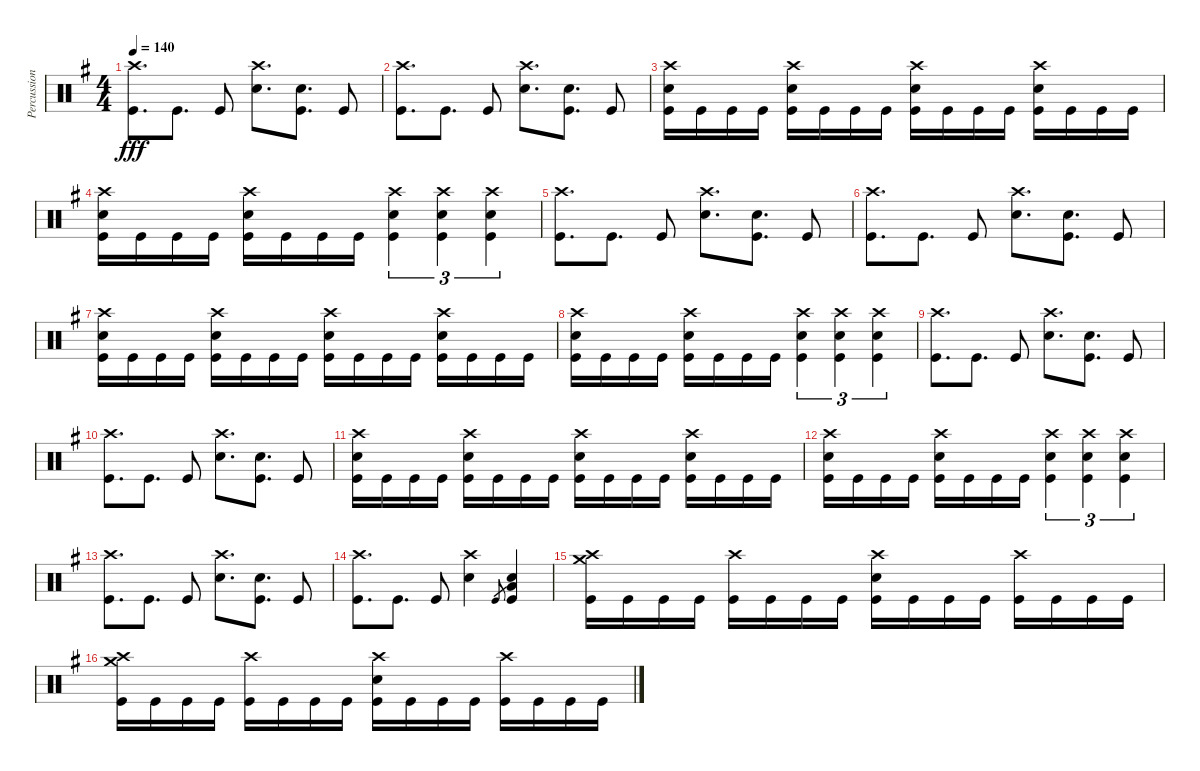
\track ("Percussion" "Percussion") {instrument percussion}
\staff {score}
\articulation defaults
\ts (4 4)
\tempo 140
\clef neutral
\ks eminor
("Crash high (hit)" "Kick (hit)").8{d dy fff} "Kick (hit)".8{d} "Kick (hit)".8 ("Crash high (hit)" "Snare (hit) 2").8{d} ("Snare (hit) 2" "Kick (hit)").8{d} "Kick (hit)".8 |
("Crash high (hit)" "Kick (hit)").8{d} "Kick (hit)".8{d} "Kick (hit)".8 ("Crash high (hit)" "Snare (hit) 2").8{d} ("Snare (hit) 2" "Kick (hit)").8{d} "Kick (hit)".8 |
("Crash high (hit)" "Snare (hit) 2" "Kick (hit)").16 "Kick (hit)".16 "Kick (hit)".16 "Kick (hit)".16 ("Crash high (hit)" "Snare (hit) 2" "Kick (hit)").16 "Kick (hit)".16 "Kick (hit)".16 "Kick (hit)".16 ("Crash high (hit)" "Snare (hit) 2" "Kick (hit)").16 "Kick (hit)".16 "Kick (hit)".16 "Kick (hit)".16 ("Crash high (hit)" "Snare (hit) 2" "Kick (hit)").16 "Kick (hit)".16 "Kick (hit)".16 "Kick (hit)".16 |
("Crash high (hit)" "Snare (hit) 2" "Kick (hit)").16 "Kick (hit)".16 "Kick (hit)".16 "Kick (hit)".16 ("Crash high (hit)" "Snare (hit) 2" "Kick (hit)").16 "Kick (hit)".16 "Kick (hit)".16 "Kick (hit)".16 ("Crash high (hit)" "Snare (hit) 2" "Kick (hit)").4{tu (3 2)} ("Crash high (hit)" "Snare (hit) 2" "Kick (hit)").4{tu (3 2)} ("Crash high (hit)" "Snare (hit) 2" "Kick (hit)").4{tu (3 2)} |
("Crash high (hit)" "Kick (hit)").8{d} "Kick (hit)".8{d} "Kick (hit)".8 ("Crash high (hit)" "Snare (hit) 2").8{d} ("Snare (hit) 2" "Kick (hit)").8{d} "Kick (hit)".8 |
("Crash high (hit)" "Kick (hit)").8{d} "Kick (hit)".8{d} "Kick (hit)".8 ("Crash high (hit)" "Snare (hit) 2").8{d} ("Snare (hit) 2" "Kick (hit)").8{d} "Kick (hit)".8 |
("Crash high (hit)" "Snare (hit) 2" "Kick (hit)").16 "Kick (hit)".16 "Kick (hit)".16 "Kick (hit)".16 ("Crash high (hit)" "Snare (hit) 2" "Kick (hit)").16 "Kick (hit)".16 "Kick (hit)".16 "Kick (hit)".16 ("Crash high (hit)" "Snare (hit) 2" "Kick (hit)").16 "Kick (hit)".16 "Kick (hit)".16 "Kick (hit)".16 ("Crash high (hit)" "Snare (hit) 2" "Kick (hit)").16 "Kick (hit)".16 "Kick (hit)".16 "Kick (hit)".16 |
("Crash high (hit)" "Snare (hit) 2" "Kick (hit)").16 "Kick (hit)".16 "Kick (hit)".16 "Kick (hit)".16 ("Crash high (hit)" "Snare (hit) 2" "Kick (hit)").16 "Kick (hit)".16 "Kick (hit)".16 "Kick (hit)".16 ("Crash high (hit)" "Snare (hit) 2" "Kick (hit)").4{tu (3 2)} ("Crash high (hit)" "Snare (hit) 2" "Kick (hit)").4{tu (3 2)} ("Crash high (hit)" "Snare (hit) 2" "Kick (hit)").4{tu (3 2)} |
("Crash high (hit)" "Kick (hit)").8{d} "Kick (hit)".8{d} "Kick (hit)".8 ("Crash high (hit)" "Snare (hit) 2").8{d} ("Snare (hit) 2" "Kick (hit)").8{d} "Kick (hit)".8 |
("Crash high (hit)" "Kick (hit)").8{d} "Kick (hit)".8{d} "Kick (hit)".8 ("Crash high (hit)" "Snare (hit) 2").8{d} ("Snare (hit) 2" "Kick (hit)").8{d} "Kick (hit)".8 |
("Crash high (hit)" "Snare (hit) 2" "Kick (hit)").16 "Kick (hit)".16 "Kick (hit)".16 "Kick (hit)".16 ("Crash high (hit)" "Snare (hit) 2" "Kick (hit)").16 "Kick (hit)".16 "Kick (hit)".16 "Kick (hit)".16 ("Crash high (hit)" "Snare (hit) 2" "Kick (hit)").16 "Kick (hit)".16 "Kick (hit)".16 "Kick (hit)".16 ("Crash high (hit)" "Snare (hit) 2" "Kick (hit)").16 "Kick (hit)".16 "Kick (hit)".16 "Kick (hit)".16 |
("Crash high (hit)" "Snare (hit) 2" "Kick (hit)").16 "Kick (hit)".16 "Kick (hit)".16 "Kick (hit)".16 ("Crash high (hit)" "Snare (hit) 2" "Kick (hit)").16 "Kick (hit)".16 "Kick (hit)".16 "Kick (hit)".16 ("Crash high (hit)" "Snare (hit) 2" "Kick (hit)").4{tu (3 2)} ("Crash high (hit)" "Snare (hit) 2" "Kick (hit)").4{tu (3 2)} ("Crash high (hit)" "Snare (hit) 2" "Kick (hit)").4{tu (3 2)} |
("Crash high (hit)" "Kick (hit)").8{d} "Kick (hit)".8{d} "Kick (hit)".8 ("Crash high (hit)" "Snare (hit) 2").8{d} ("Snare (hit) 2" "Kick (hit)").8{d} "Kick (hit)".8 |
("Crash high (hit)" "Kick (hit)").8{d} "Kick (hit)".8{d} "Kick (hit)".8 ("Crash high (hit)" "Snare (hit) 2").4 "Kick (hit)".8{gr} ("Snare (hit) 2" "Low Tom (hit)" "Kick (hit)").4 |
("Crash medium (hit)" "Crash high (hit)" "Kick (hit)").16 "Kick (hit)".16 "Kick (hit)".16 "Kick (hit)".16 ("Crash high (hit)" "Kick (hit)").16 "Kick (hit)".16 "Kick (hit)".16 "Kick (hit)".16 ("Crash high (hit)" "Snare (hit) 2" "Kick (hit)").16 "Kick (hit)".16 "Kick (hit)".16 "Kick (hit)".16 ("Crash high (hit)" "Kick (hit)").16 "Kick (hit)".16 "Kick (hit)".16 "Kick (hit)".16 |
("Crash medium (hit)" "Crash high (hit)" "Kick (hit)").16 "Kick (hit)".16 "Kick (hit)".16 "Kick (hit)".16 ("Crash high (hit)" "Kick (hit)").16 "Kick (hit)".16 "Kick (hit)".16 "Kick (hit)".16 ("Crash high (hit)" "Snare (hit) 2" "Kick (hit)").16 "Kick (hit)".16 "Kick (hit)".16 "Kick (hit)".16 ("Crash high (hit)" "Kick (hit)").16 "Kick (hit)".16 "Kick (hit)".16 "Kick (hit)".16
